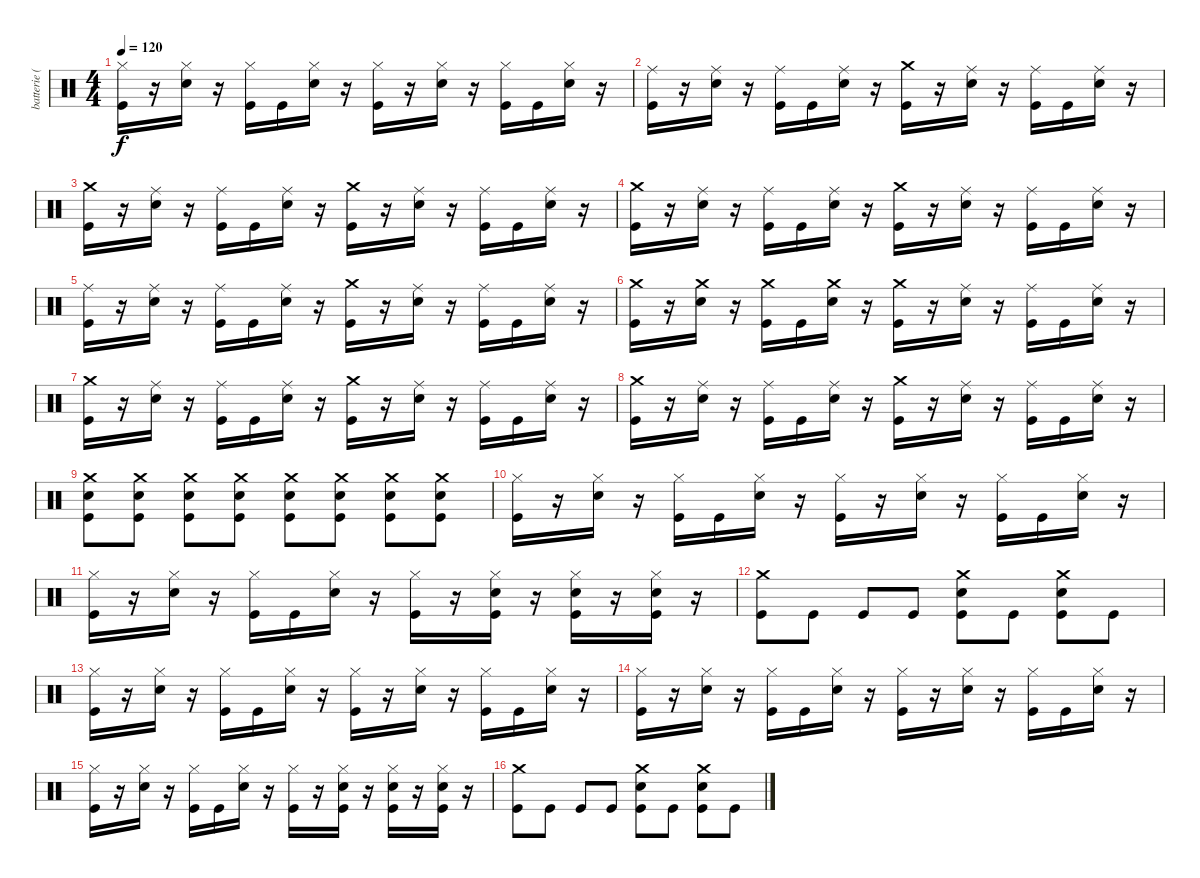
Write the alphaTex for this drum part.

\track ("batterie ( Yureesh ) " "batterie (") {instrument percussion}
\staff {score}
\articulation defaults
\ts (4 4)
\tempo 120
\clef neutral
\ks c
("Hi-Hat (closed)" "Kick (hit)").16{dy f} r.16 ("Hi-Hat (closed)" "Snare (hit) 2").16 r.16 ("Hi-Hat (closed)" "Kick (hit)").16 "Kick (hit)".16 ("Hi-Hat (closed)" "Snare (hit) 2").16 r.16 ("Hi-Hat (closed)" "Kick (hit)").16 r.16 ("Hi-Hat (closed)" "Snare (hit) 2").16 r.16 ("Hi-Hat (closed)" "Kick (hit)").16 "Kick (hit)".16 ("Hi-Hat (closed)" "Snare (hit) 2").16 r.16 |
("Ride (middle)" "Kick (hit)").16 r.16 ("Ride (middle)" "Snare (hit) 2").16 r.16 ("Ride (middle)" "Kick (hit)").16 "Kick (hit)".16 ("Ride (middle)" "Snare (hit) 2").16 r.16 ("Crash medium (hit)" "Kick (hit)").16 r.16 ("Ride (middle)" "Snare (hit) 2").16 r.16 ("Ride (middle)" "Kick (hit)").16 "Kick (hit)".16 ("Ride (middle)" "Snare (hit) 2").16 r.16 |
("Crash medium (hit)" "Kick (hit)").16 r.16 ("Ride (middle)" "Snare (hit) 2").16 r.16 ("Ride (middle)" "Kick (hit)").16 "Kick (hit)".16 ("Ride (middle)" "Snare (hit) 2").16 r.16 ("Crash medium (hit)" "Kick (hit)").16 r.16 ("Ride (middle)" "Snare (hit) 2").16 r.16 ("Ride (middle)" "Kick (hit)").16 "Kick (hit)".16 ("Ride (middle)" "Snare (hit) 2").16 r.16 |
("Crash medium (hit)" "Kick (hit)").16 r.16 ("Ride (middle)" "Snare (hit) 2").16 r.16 ("Ride (middle)" "Kick (hit)").16 "Kick (hit)".16 ("Ride (middle)" "Snare (hit) 2").16 r.16 ("Crash medium (hit)" "Kick (hit)").16 r.16 ("Ride (middle)" "Snare (hit) 2").16 r.16 ("Ride (middle)" "Kick (hit)").16 "Kick (hit)".16 ("Ride (middle)" "Snare (hit) 2").16 r.16 |
("Ride (middle)" "Kick (hit)").16 r.16 ("Ride (middle)" "Snare (hit) 2").16 r.16 ("Ride (middle)" "Kick (hit)").16 "Kick (hit)".16 ("Ride (middle)" "Snare (hit) 2").16 r.16 ("Crash medium (hit)" "Kick (hit)").16 r.16 ("Ride (middle)" "Snare (hit) 2").16 r.16 ("Ride (middle)" "Kick (hit)").16 "Kick (hit)".16 ("Ride (middle)" "Snare (hit) 2").16 r.16 |
("Crash medium (hit)" "Kick (hit)").16 r.16 ("Crash medium (hit)" "Snare (hit) 2").16 r.16 ("Crash medium (hit)" "Kick (hit)").16 "Kick (hit)".16 ("Crash medium (hit)" "Snare (hit) 2").16 r.16 ("Crash medium (hit)" "Kick (hit)").16 r.16 ("Ride (middle)" "Snare (hit) 2").16 r.16 ("Ride (middle)" "Kick (hit)").16 "Kick (hit)".16 ("Ride (middle)" "Snare (hit) 2").16 r.16 |
("Crash medium (hit)" "Kick (hit)").16 r.16 ("Ride (middle)" "Snare (hit) 2").16 r.16 ("Ride (middle)" "Kick (hit)").16 "Kick (hit)".16 ("Ride (middle)" "Snare (hit) 2").16 r.16 ("Crash medium (hit)" "Kick (hit)").16 r.16 ("Ride (middle)" "Snare (hit) 2").16 r.16 ("Ride (middle)" "Kick (hit)").16 "Kick (hit)".16 ("Ride (middle)" "Snare (hit) 2").16 r.16 |
("Crash medium (hit)" "Kick (hit)").16 r.16 ("Ride (middle)" "Snare (hit) 2").16 r.16 ("Ride (middle)" "Kick (hit)").16 "Kick (hit)".16 ("Ride (middle)" "Snare (hit) 2").16 r.16 ("Crash medium (hit)" "Kick (hit)").16 r.16 ("Ride (middle)" "Snare (hit) 2").16 r.16 ("Ride (middle)" "Kick (hit)").16 "Kick (hit)".16 ("Ride (middle)" "Snare (hit) 2").16 r.16 |
("Crash medium (hit)" "Snare (hit) 2" "Kick (hit)").8 ("Crash medium (hit)" "Snare (hit) 2" "Kick (hit)").8 ("Crash medium (hit)" "Snare (hit) 2" "Kick (hit)").8 ("Crash medium (hit)" "Snare (hit) 2" "Kick (hit)").8 ("Crash medium (hit)" "Snare (hit) 2" "Kick (hit)").8 ("Crash medium (hit)" "Snare (hit) 2" "Kick (hit)").8 ("Crash medium (hit)" "Snare (hit) 2" "Kick (hit)").8 ("Crash medium (hit)" "Snare (hit) 2" "Kick (hit)").8 |
("Hi-Hat (closed)" "Kick (hit)").16 r.16 ("Hi-Hat (closed)" "Snare (hit) 2").16 r.16 ("Hi-Hat (closed)" "Kick (hit)").16 "Kick (hit)".16 ("Hi-Hat (closed)" "Snare (hit) 2").16 r.16 ("Hi-Hat (closed)" "Kick (hit)").16 r.16 ("Hi-Hat (closed)" "Snare (hit) 2").16 r.16 ("Hi-Hat (closed)" "Kick (hit)").16 "Kick (hit)".16 ("Hi-Hat (closed)" "Snare (hit) 2").16 r.16 |
("Hi-Hat (closed)" "Kick (hit)").16 r.16 ("Hi-Hat (closed)" "Snare (hit) 2").16 r.16 ("Hi-Hat (closed)" "Kick (hit)").16 "Kick (hit)".16 ("Hi-Hat (closed)" "Snare (hit) 2").16 r.16 ("Hi-Hat (closed)" "Kick (hit)").16 r.16 ("Hi-Hat (closed)" "Snare (hit) 2" "Kick (hit)").16 r.16 ("Hi-Hat (closed)" "Snare (hit) 2" "Kick (hit)").16 r.16 ("Hi-Hat (closed)" "Snare (hit) 2" "Kick (hit)").16 r.16 |
("Crash medium (hit)" "Kick (hit)").8 "Kick (hit)".8 "Kick (hit)".8 "Kick (hit)".8 ("Crash medium (hit)" "Snare (hit) 2" "Kick (hit)").8 "Kick (hit)".8 ("Crash medium (hit)" "Snare (hit) 2" "Kick (hit)").8 "Kick (hit)".8 |
("Hi-Hat (closed)" "Kick (hit)").16 r.16 ("Hi-Hat (closed)" "Snare (hit) 2").16 r.16 ("Hi-Hat (closed)" "Kick (hit)").16 "Kick (hit)".16 ("Hi-Hat (closed)" "Snare (hit) 2").16 r.16 ("Hi-Hat (closed)" "Kick (hit)").16 r.16 ("Hi-Hat (closed)" "Snare (hit) 2").16 r.16 ("Hi-Hat (closed)" "Kick (hit)").16 "Kick (hit)".16 ("Hi-Hat (closed)" "Snare (hit) 2").16 r.16 |
("Hi-Hat (closed)" "Kick (hit)").16 r.16 ("Hi-Hat (closed)" "Snare (hit) 2").16 r.16 ("Hi-Hat (closed)" "Kick (hit)").16 "Kick (hit)".16 ("Hi-Hat (closed)" "Snare (hit) 2").16 r.16 ("Hi-Hat (closed)" "Kick (hit)").16 r.16 ("Hi-Hat (closed)" "Snare (hit) 2").16 r.16 ("Hi-Hat (closed)" "Kick (hit)").16 "Kick (hit)".16 ("Hi-Hat (closed)" "Snare (hit) 2").16 r.16 |
("Hi-Hat (closed)" "Kick (hit)").16 r.16 ("Hi-Hat (closed)" "Snare (hit) 2").16 r.16 ("Hi-Hat (closed)" "Kick (hit)").16 "Kick (hit)".16 ("Hi-Hat (closed)" "Snare (hit) 2").16 r.16 ("Hi-Hat (closed)" "Kick (hit)").16 r.16 ("Hi-Hat (closed)" "Snare (hit) 2" "Kick (hit)").16 r.16 ("Hi-Hat (closed)" "Snare (hit) 2" "Kick (hit)").16 r.16 ("Hi-Hat (closed)" "Snare (hit) 2" "Kick (hit)").16 r.16 |
("Crash medium (hit)" "Kick (hit)").8 "Kick (hit)".8 "Kick (hit)".8 "Kick (hit)".8 ("Crash medium (hit)" "Snare (hit) 2" "Kick (hit)").8 "Kick (hit)".8 ("Crash medium (hit)" "Snare (hit) 2" "Kick (hit)").8 "Kick (hit)".8
